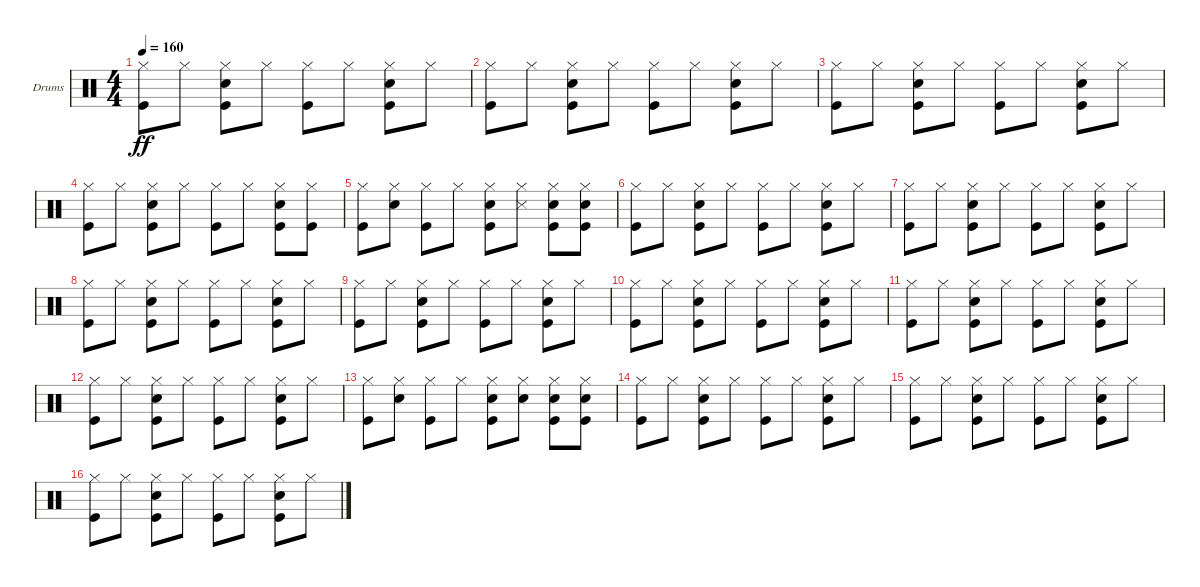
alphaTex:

\bracketExtendMode groupsimilarinstruments
\firstSystemTrackNameOrientation horizontal
\otherSystemsTrackNameOrientation horizontal
\track ("Ударные" "Drums") {instrument percussion}
\staff {score}
\articulation defaults
\ts (4 4)
\tempo 160
\clef neutral
\ks c
("Hi-Hat (closed)" "Kick (hit)").8{dy ff} "Hi-Hat (closed)".8 ("Hi-Hat (closed)" "Snare (hit) 2" "Kick (hit)").8 "Hi-Hat (closed)".8 ("Hi-Hat (closed)" "Kick (hit)").8 "Hi-Hat (closed)".8 ("Hi-Hat (closed)" "Snare (hit) 2" "Kick (hit)").8 "Hi-Hat (closed)".8 |
("Hi-Hat (closed)" "Kick (hit)").8 "Hi-Hat (closed)".8 ("Hi-Hat (closed)" "Snare (hit) 2" "Kick (hit)").8 "Hi-Hat (closed)".8 ("Hi-Hat (closed)" "Kick (hit)").8 "Hi-Hat (closed)".8 ("Hi-Hat (closed)" "Snare (hit) 2" "Kick (hit)").8 "Hi-Hat (closed)".8 |
("Hi-Hat (closed)" "Kick (hit)").8 "Hi-Hat (closed)".8 ("Hi-Hat (closed)" "Snare (hit) 2" "Kick (hit)").8 "Hi-Hat (closed)".8 ("Hi-Hat (closed)" "Kick (hit)").8 "Hi-Hat (closed)".8 ("Hi-Hat (closed)" "Snare (hit) 2" "Kick (hit)").8 "Hi-Hat (closed)".8 |
("Hi-Hat (closed)" "Kick (hit)").8 "Hi-Hat (closed)".8 ("Hi-Hat (closed)" "Snare (hit) 2" "Kick (hit)").8 "Hi-Hat (closed)".8 ("Hi-Hat (closed)" "Kick (hit)").8 "Hi-Hat (closed)".8 ("Hi-Hat (closed)" "Snare (hit) 2" "Kick (hit)").8 ("Hi-Hat (closed)" "Kick (hit)").8 |
("Hi-Hat (closed)" "Kick (hit)").8 ("Hi-Hat (closed)" "Snare (hit) 2").8 ("Hi-Hat (closed)" "Kick (hit)").8 "Hi-Hat (closed)".8 ("Hi-Hat (closed)" "Snare (hit) 2" "Kick (hit)").8 ("Hi-Hat (closed)" "Snare (side stick) 3").8 ("Hi-Hat (closed)" "Snare (hit) 2" "Kick (hit)").8 ("Hi-Hat (closed)" "Snare (hit) 2" "Kick (hit)").8 |
("Hi-Hat (closed)" "Kick (hit)").8 "Hi-Hat (closed)".8 ("Hi-Hat (closed)" "Snare (hit) 2" "Kick (hit)").8 "Hi-Hat (closed)".8 ("Hi-Hat (closed)" "Kick (hit)").8 "Hi-Hat (closed)".8 ("Hi-Hat (closed)" "Snare (hit) 2" "Kick (hit)").8 "Hi-Hat (closed)".8 |
("Hi-Hat (closed)" "Kick (hit)").8 "Hi-Hat (closed)".8 ("Hi-Hat (closed)" "Snare (hit) 2" "Kick (hit)").8 "Hi-Hat (closed)".8 ("Hi-Hat (closed)" "Kick (hit)").8 "Hi-Hat (closed)".8 ("Hi-Hat (closed)" "Snare (hit) 2" "Kick (hit)").8 "Hi-Hat (closed)".8 |
("Hi-Hat (closed)" "Kick (hit)").8 "Hi-Hat (closed)".8 ("Hi-Hat (closed)" "Snare (hit) 2" "Kick (hit)").8 "Hi-Hat (closed)".8 ("Hi-Hat (closed)" "Kick (hit)").8 "Hi-Hat (closed)".8 ("Hi-Hat (closed)" "Snare (hit) 2" "Kick (hit)").8 "Hi-Hat (closed)".8 |
("Hi-Hat (closed)" "Kick (hit)").8 "Hi-Hat (closed)".8 ("Hi-Hat (closed)" "Snare (hit) 2" "Kick (hit)").8 "Hi-Hat (closed)".8 ("Hi-Hat (closed)" "Kick (hit)").8 "Hi-Hat (closed)".8 ("Hi-Hat (closed)" "Snare (hit) 2" "Kick (hit)").8 "Hi-Hat (closed)".8 |
("Hi-Hat (closed)" "Kick (hit)").8 "Hi-Hat (closed)".8 ("Hi-Hat (closed)" "Snare (hit) 2" "Kick (hit)").8 "Hi-Hat (closed)".8 ("Hi-Hat (closed)" "Kick (hit)").8 "Hi-Hat (closed)".8 ("Hi-Hat (closed)" "Snare (hit) 2" "Kick (hit)").8 "Hi-Hat (closed)".8 |
("Hi-Hat (closed)" "Kick (hit)").8 "Hi-Hat (closed)".8 ("Hi-Hat (closed)" "Snare (hit) 2" "Kick (hit)").8 "Hi-Hat (closed)".8 ("Hi-Hat (closed)" "Kick (hit)").8 "Hi-Hat (closed)".8 ("Hi-Hat (closed)" "Snare (hit) 2" "Kick (hit)").8 "Hi-Hat (closed)".8 |
("Hi-Hat (closed)" "Kick (hit)").8 "Hi-Hat (closed)".8 ("Hi-Hat (closed)" "Snare (hit) 2" "Kick (hit)").8 "Hi-Hat (closed)".8 ("Hi-Hat (closed)" "Kick (hit)").8 "Hi-Hat (closed)".8 ("Hi-Hat (closed)" "Snare (hit) 2" "Kick (hit)").8 "Hi-Hat (closed)".8 |
("Hi-Hat (closed)" "Kick (hit)").8 ("Hi-Hat (closed)" "Snare (hit) 2").8 ("Hi-Hat (closed)" "Kick (hit)").8 "Hi-Hat (closed)".8 ("Hi-Hat (closed)" "Snare (hit) 2" "Kick (hit)").8 ("Hi-Hat (closed)" "Snare (hit) 2").8 ("Hi-Hat (closed)" "Snare (hit) 2" "Kick (hit)").8 ("Hi-Hat (closed)" "Snare (hit) 2" "Kick (hit)").8 |
("Hi-Hat (closed)" "Kick (hit)").8 "Hi-Hat (closed)".8 ("Hi-Hat (closed)" "Snare (hit) 2" "Kick (hit)").8 "Hi-Hat (closed)".8 ("Hi-Hat (closed)" "Kick (hit)").8 "Hi-Hat (closed)".8 ("Hi-Hat (closed)" "Snare (hit) 2" "Kick (hit)").8 "Hi-Hat (closed)".8 |
("Hi-Hat (closed)" "Kick (hit)").8 "Hi-Hat (closed)".8 ("Hi-Hat (closed)" "Snare (hit) 2" "Kick (hit)").8 "Hi-Hat (closed)".8 ("Hi-Hat (closed)" "Kick (hit)").8 "Hi-Hat (closed)".8 ("Hi-Hat (closed)" "Snare (hit) 2" "Kick (hit)").8 "Hi-Hat (closed)".8 |
("Hi-Hat (closed)" "Kick (hit)").8 "Hi-Hat (closed)".8 ("Hi-Hat (closed)" "Snare (hit) 2" "Kick (hit)").8 "Hi-Hat (closed)".8 ("Hi-Hat (closed)" "Kick (hit)").8 "Hi-Hat (closed)".8 ("Hi-Hat (closed)" "Snare (hit) 2" "Kick (hit)").8 "Hi-Hat (closed)".8
